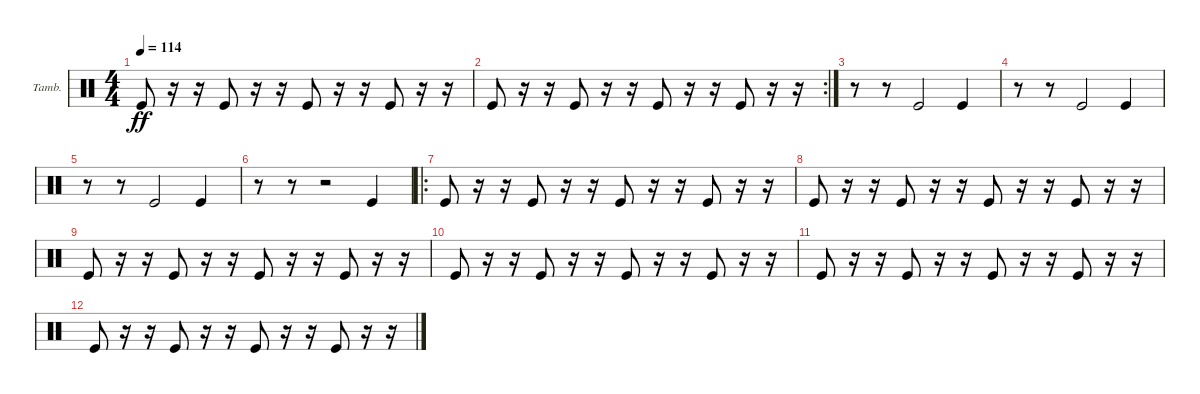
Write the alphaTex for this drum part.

\defaultSystemsLayout 4
\bracketExtendMode groupsimilarinstruments
\firstSystemTrackNameOrientation horizontal
\otherSystemsTrackNameOrientation horizontal
\track ("Tambourine" "Tamb.") {instrument percussion}
\staff {score}
\articulation defaults
\ts (4 4)
\tempo 114
\clef neutral
\ks c "Kick (hit)".8{dy ff}
r.16 r.16 "Kick (hit)".8 r.16 r.16 "Kick (hit)".8 r.16 r.16 "Kick (hit)".8 r.16 r.16 |
\rc 2 "Kick (hit)".8
r.16 r.16 "Kick (hit)".8 r.16 r.16 "Kick (hit)".8 r.16 r.16 "Kick (hit)".8 r.16 r.16 |
r.8 r.8 "Kick (hit)".2 "Kick (hit)".4 |
r.8 r.8 "Kick (hit)".2 "Kick (hit)".4 |
r.8 r.8 "Kick (hit)".2 "Kick (hit)".4 |
r.8 r.8 r.2 "Kick (hit)".4 |
\ro "Kick (hit)".8
r.16 r.16 "Kick (hit)".8 r.16 r.16 "Kick (hit)".8 r.16 r.16 "Kick (hit)".8 r.16 r.16 |
"Kick (hit)".8 r.16 r.16 "Kick (hit)".8 r.16 r.16 "Kick (hit)".8 r.16 r.16 "Kick (hit)".8 r.16 r.16 |
"Kick (hit)".8 r.16 r.16 "Kick (hit)".8 r.16 r.16 "Kick (hit)".8 r.16 r.16 "Kick (hit)".8 r.16 r.16 |
"Kick (hit)".8 r.16 r.16 "Kick (hit)".8 r.16 r.16 "Kick (hit)".8 r.16 r.16 "Kick (hit)".8 r.16 r.16 |
"Kick (hit)".8 r.16 r.16 "Kick (hit)".8 r.16 r.16 "Kick (hit)".8 r.16 r.16 "Kick (hit)".8 r.16 r.16 |
"Kick (hit)".8 r.16 r.16 "Kick (hit)".8 r.16 r.16 "Kick (hit)".8 r.16 r.16 "Kick (hit)".8 r.16 r.16
